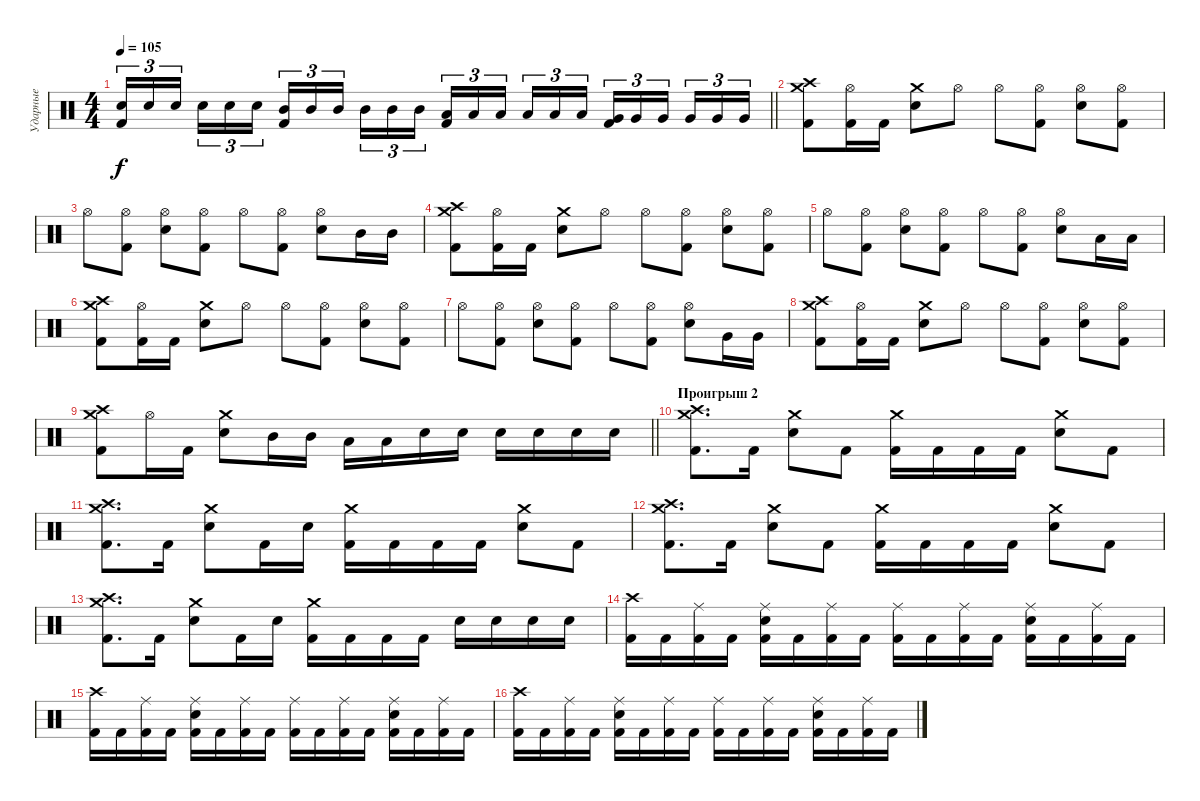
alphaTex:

\track ("Ударные" "Ударные") {instrument percussion}
\staff
\articulation defaults
\ts (4 4)
\tempo 105
\clef neutral
\barLineRight lightlight
\ks c
("Electric Snare (hit)" "Kick (hit) 2").16{tu (3 2) dy f} "Electric Snare (hit)".16{tu (3 2)} "Electric Snare (hit)".16{tu (3 2) beam splitsecondary} "Electric Snare (hit)".16{tu (3 2)} "Electric Snare (hit)".16{tu (3 2)} "Electric Snare (hit)".16{tu (3 2)} ("Mid Tom (hit)" "Kick (hit) 2").16{tu (3 2)} "Mid Tom (hit)".16{tu (3 2)} "Mid Tom (hit)".16{tu (3 2) beam splitsecondary} "Mid Tom (hit)".16{tu (3 2)} "Mid Tom (hit)".16{tu (3 2)} "Mid Tom (hit)".16{tu (3 2)} ("Low Tom (hit)" "Kick (hit) 2").16{tu (3 2)} "Low Tom (hit)".16{tu (3 2)} "Low Tom (hit)".16{tu (3 2) beam splitsecondary} "Low Tom (hit)".16{tu (3 2)} "Low Tom (hit)".16{tu (3 2)} "Low Tom (hit)".16{tu (3 2)} ("Very Low Tom (hit)" "Kick (hit) 2").16{tu (3 2)} "Very Low Tom (hit)".16{tu (3 2)} "Very Low Tom (hit)".16{tu (3 2) beam splitsecondary} "Very Low Tom (hit)".16{tu (3 2)} "Very Low Tom (hit)".16{tu (3 2)} "Very Low Tom (hit)".16{tu (3 2)} |
("Crash medium (hit)" "Crash high (hit)" "Kick (hit) 2").8 ("Hi-Hat (open)" "Kick (hit) 2").16 "Kick (hit) 2".16 ("Crash medium (hit)" "Electric Snare (hit)").8 "Hi-Hat (open)".8 "Hi-Hat (open)".8 ("Hi-Hat (open)" "Kick (hit) 2").8 ("Hi-Hat (open)" "Electric Snare (hit)").8 ("Hi-Hat (open)" "Kick (hit) 2").8 |
"Hi-Hat (open)".8 ("Hi-Hat (open)" "Kick (hit) 2").8 ("Hi-Hat (open)" "Electric Snare (hit)").8 ("Hi-Hat (open)" "Kick (hit) 2").8 "Hi-Hat (open)".8 ("Hi-Hat (open)" "Kick (hit) 2").8 ("Hi-Hat (open)" "Electric Snare (hit)").8 "Mid Tom (hit)".16 "Mid Tom (hit)".16 |
("Crash medium (hit)" "Crash high (hit)" "Kick (hit) 2").8 ("Hi-Hat (open)" "Kick (hit) 2").16 "Kick (hit) 2".16 ("Crash medium (hit)" "Electric Snare (hit)").8 "Hi-Hat (open)".8 "Hi-Hat (open)".8 ("Hi-Hat (open)" "Kick (hit) 2").8 ("Hi-Hat (open)" "Electric Snare (hit)").8 ("Hi-Hat (open)" "Kick (hit) 2").8 |
"Hi-Hat (open)".8 ("Hi-Hat (open)" "Kick (hit) 2").8 ("Hi-Hat (open)" "Electric Snare (hit)").8 ("Hi-Hat (open)" "Kick (hit) 2").8 "Hi-Hat (open)".8 ("Hi-Hat (open)" "Kick (hit) 2").8 ("Hi-Hat (open)" "Electric Snare (hit)").8 "Low Tom (hit)".16 "Low Tom (hit)".16 |
("Crash medium (hit)" "Crash high (hit)" "Kick (hit) 2").8 ("Hi-Hat (open)" "Kick (hit) 2").16 "Kick (hit) 2".16 ("Crash medium (hit)" "Electric Snare (hit)").8 "Hi-Hat (open)".8 "Hi-Hat (open)".8 ("Hi-Hat (open)" "Kick (hit) 2").8 ("Hi-Hat (open)" "Electric Snare (hit)").8 ("Hi-Hat (open)" "Kick (hit) 2").8 |
"Hi-Hat (open)".8 ("Hi-Hat (open)" "Kick (hit) 2").8 ("Hi-Hat (open)" "Electric Snare (hit)").8 ("Hi-Hat (open)" "Kick (hit) 2").8 "Hi-Hat (open)".8 ("Hi-Hat (open)" "Kick (hit) 2").8 ("Hi-Hat (open)" "Electric Snare (hit)").8 "Very Low Tom (hit)".16 "Very Low Tom (hit)".16 |
("Crash medium (hit)" "Crash high (hit)" "Kick (hit) 2").8 ("Hi-Hat (open)" "Kick (hit) 2").16 "Kick (hit) 2".16 ("Crash medium (hit)" "Electric Snare (hit)").8 "Hi-Hat (open)".8 "Hi-Hat (open)".8 ("Hi-Hat (open)" "Kick (hit) 2").8 ("Hi-Hat (open)" "Electric Snare (hit)").8 ("Hi-Hat (open)" "Kick (hit) 2").8 |
\barLineRight lightlight
("Crash medium (hit)" "Crash high (hit)" "Kick (hit) 2").8 "Hi-Hat (open)".16 "Kick (hit) 2".16 ("Crash medium (hit)" "Electric Snare (hit)").8 "Mid Tom (hit)".16 "Mid Tom (hit)".16 "Low Tom (hit)".16 "Low Tom (hit)".16 "Electric Snare (hit)".16 "Electric Snare (hit)".16 "Electric Snare (hit)".16 "Electric Snare (hit)".16 "Electric Snare (hit)".16 "Electric Snare (hit)".16 |
\section ("" "Проигрыш 2")
("Crash medium (hit)" "Crash high (hit)" "Kick (hit) 2").8{d} "Kick (hit) 2".16 ("Crash medium (hit)" "Electric Snare (hit)").8 "Kick (hit) 2".8 ("Crash medium (hit)" "Kick (hit) 2").16 "Kick (hit) 2".16 "Kick (hit) 2".16 "Kick (hit) 2".16 ("Crash medium (hit)" "Electric Snare (hit)").8 "Kick (hit) 2".8 |
("Crash medium (hit)" "Crash high (hit)" "Kick (hit) 2").8{d} "Kick (hit) 2".16 ("Crash medium (hit)" "Electric Snare (hit)").8 "Kick (hit) 2".16 "Electric Snare (hit)".16 ("Crash medium (hit)" "Kick (hit) 2").16 "Kick (hit) 2".16 "Kick (hit) 2".16 "Kick (hit) 2".16 ("Crash medium (hit)" "Electric Snare (hit)").8 "Kick (hit) 2".8 |
("Crash medium (hit)" "Crash high (hit)" "Kick (hit) 2").8{d} "Kick (hit) 2".16 ("Crash medium (hit)" "Electric Snare (hit)").8 "Kick (hit) 2".8 ("Crash medium (hit)" "Kick (hit) 2").16 "Kick (hit) 2".16 "Kick (hit) 2".16 "Kick (hit) 2".16 ("Crash medium (hit)" "Electric Snare (hit)").8 "Kick (hit) 2".8 |
("Crash medium (hit)" "Crash high (hit)" "Kick (hit) 2").8{d} "Kick (hit) 2".16 ("Crash medium (hit)" "Electric Snare (hit)").8 "Kick (hit) 2".16 "Electric Snare (hit)".16 ("Crash medium (hit)" "Kick (hit) 2").16 "Kick (hit) 2".16 "Kick (hit) 2".16 "Kick (hit) 2".16 "Electric Snare (hit)".16 "Electric Snare (hit)".16 "Electric Snare (hit)".16 "Electric Snare (hit)".16 |
("Crash high (hit)" "Kick (hit) 2").16 "Kick (hit) 2".16 ("Ride (middle)" "Kick (hit) 2").16 "Kick (hit) 2".16 ("Ride (middle)" "Electric Snare (hit)" "Kick (hit) 2").16 "Kick (hit) 2".16 ("Ride (middle)" "Kick (hit) 2").16 "Kick (hit) 2".16 ("Ride (middle)" "Kick (hit) 2").16 "Kick (hit) 2".16 ("Ride (middle)" "Kick (hit) 2").16 "Kick (hit) 2".16 ("Ride (middle)" "Electric Snare (hit)" "Kick (hit) 2").16 "Kick (hit) 2".16 ("Ride (middle)" "Kick (hit) 2").16 "Kick (hit) 2".16 |
("Crash high (hit)" "Kick (hit) 2").16 "Kick (hit) 2".16 ("Ride (middle)" "Kick (hit) 2").16 "Kick (hit) 2".16 ("Ride (middle)" "Electric Snare (hit)" "Kick (hit) 2").16 "Kick (hit) 2".16 ("Ride (middle)" "Kick (hit) 2").16 "Kick (hit) 2".16 ("Ride (middle)" "Kick (hit) 2").16 "Kick (hit) 2".16 ("Ride (middle)" "Kick (hit) 2").16 "Kick (hit) 2".16 ("Ride (middle)" "Electric Snare (hit)" "Kick (hit) 2").16 "Kick (hit) 2".16 ("Ride (middle)" "Kick (hit) 2").16 "Kick (hit) 2".16 |
("Crash high (hit)" "Kick (hit) 2").16 "Kick (hit) 2".16 ("Ride (middle)" "Kick (hit) 2").16 "Kick (hit) 2".16 ("Ride (middle)" "Electric Snare (hit)" "Kick (hit) 2").16 "Kick (hit) 2".16 ("Ride (middle)" "Kick (hit) 2").16 "Kick (hit) 2".16 ("Ride (middle)" "Kick (hit) 2").16 "Kick (hit) 2".16 ("Ride (middle)" "Kick (hit) 2").16 "Kick (hit) 2".16 ("Ride (middle)" "Electric Snare (hit)" "Kick (hit) 2").16 "Kick (hit) 2".16 ("Ride (middle)" "Kick (hit) 2").16 "Kick (hit) 2".16
